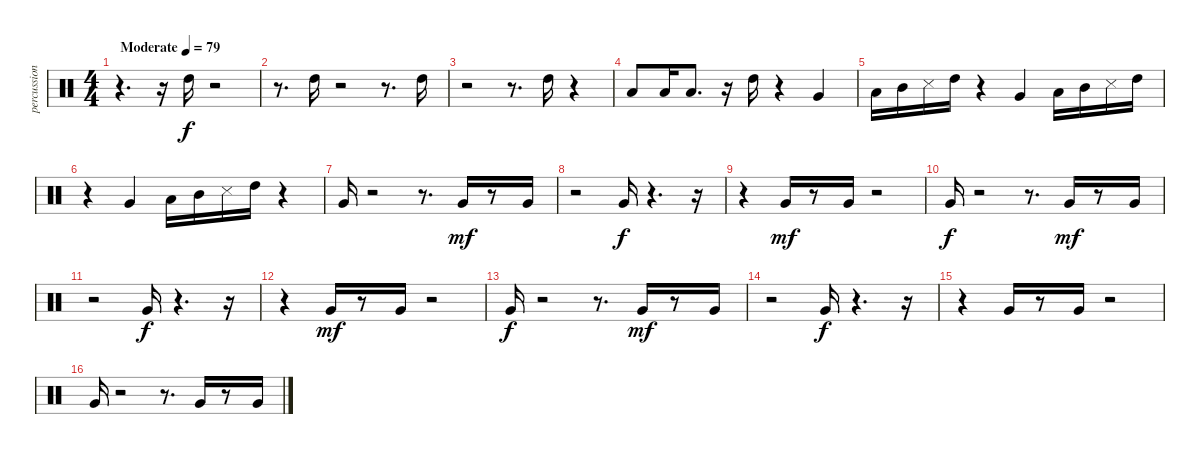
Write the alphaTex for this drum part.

\track ("percussion" "percussion") {instrument percussion}
\staff {score}
\articulation defaults
\ts (4 4)
\tempo (79 "Moderate")
\clef neutral
\ks c
r.4{d dy f} r.16 "High Tom (hit)".16 r.2 |
r.8{d} "High Tom (hit)".16 r.2 r.8{d} "High Tom (hit)".16 |
r.2 r.8{d} "High Tom (hit)".16 r.4 |
"Low Tom (hit)".8 "Low Tom (hit)".16 "Low Tom (hit)".8{d} r.16 "High Tom (hit)".16 r.4 "Very Low Tom (hit)".4 |
"Low Tom (hit)".16 "Mid Tom (hit)".16 "Snare (side stick) 3".16 "High Tom (hit)".16 r.4 "Very Low Tom (hit)".4 "Low Tom (hit)".16 "Mid Tom (hit)".16 "Snare (side stick) 3".16 "High Tom (hit)".16 |
r.4 "Very Low Tom (hit)".4 "Low Tom (hit)".16 "Mid Tom (hit)".16 "Snare (side stick) 3".16 "High Tom (hit)".16 r.4 |
"Very Low Tom (hit)".16 r.2 r.8{d} "Very Low Tom (hit)".16{dy mf} r.8 "Very Low Tom (hit)".16 |
r.2 "Very Low Tom (hit)".16{dy f} r.4{d} r.16 |
r.4 "Very Low Tom (hit)".16{dy mf} r.8 "Very Low Tom (hit)".16 r.2 |
"Very Low Tom (hit)".16{dy f} r.2 r.8{d} "Very Low Tom (hit)".16{dy mf} r.8 "Very Low Tom (hit)".16 |
r.2 "Very Low Tom (hit)".16{dy f} r.4{d} r.16 |
r.4 "Very Low Tom (hit)".16{dy mf} r.8 "Very Low Tom (hit)".16 r.2 |
"Very Low Tom (hit)".16{dy f} r.2 r.8{d} "Very Low Tom (hit)".16{dy mf} r.8 "Very Low Tom (hit)".16 |
r.2 "Very Low Tom (hit)".16{dy f} r.4{d} r.16 |
r.4 "Very Low Tom (hit)".16 r.8 "Very Low Tom (hit)".16 r.2 |
"Very Low Tom (hit)".16 r.2 r.8{d} "Very Low Tom (hit)".16 r.8 "Very Low Tom (hit)".16
